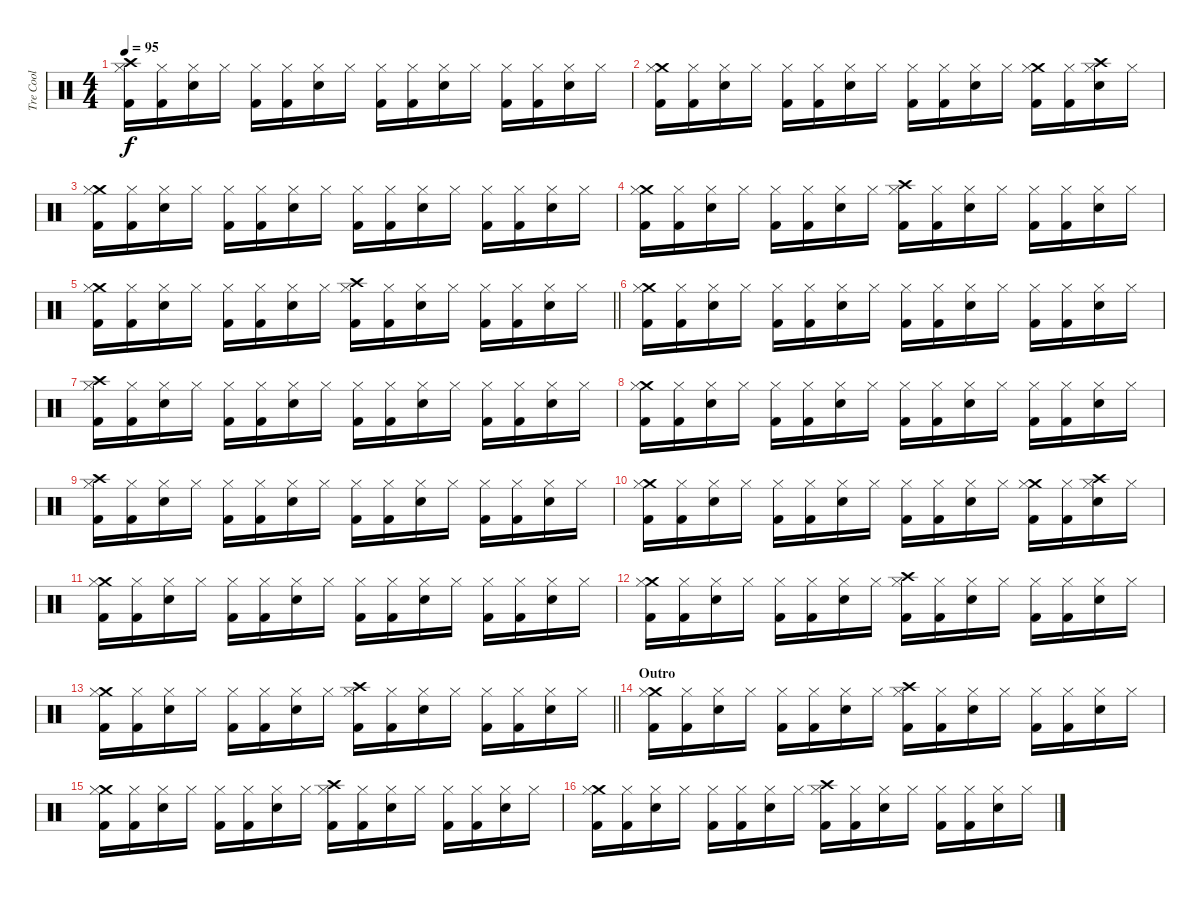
\track ("Tre Cool" "Tre Cool") {instrument percussion}
\staff {score}
\articulation defaults
\ts (4 4)
\tempo 95
\clef neutral
\ks c
("Crash high (hit)" "Hi-Hat (closed)" "Kick (hit) 2").16{dy f} ("Hi-Hat (closed)" "Kick (hit) 2").16 ("Hi-Hat (closed)" "Electric Snare (hit)").16 "Hi-Hat (closed)".16 ("Hi-Hat (closed)" "Kick (hit) 2").16 ("Hi-Hat (closed)" "Kick (hit) 2").16 ("Hi-Hat (closed)" "Electric Snare (hit)").16 "Hi-Hat (closed)".16 ("Hi-Hat (closed)" "Kick (hit) 2").16 ("Hi-Hat (closed)" "Kick (hit) 2").16 ("Hi-Hat (closed)" "Electric Snare (hit)").16 "Hi-Hat (closed)".16 ("Hi-Hat (closed)" "Kick (hit) 2").16 ("Hi-Hat (closed)" "Kick (hit) 2").16 ("Hi-Hat (closed)" "Electric Snare (hit)").16 "Hi-Hat (closed)".16 |
("Crash medium (hit)" "Hi-Hat (closed)" "Kick (hit) 2").16 ("Hi-Hat (closed)" "Kick (hit) 2").16 ("Hi-Hat (closed)" "Electric Snare (hit)").16 "Hi-Hat (closed)".16 ("Hi-Hat (closed)" "Kick (hit) 2").16 ("Hi-Hat (closed)" "Kick (hit) 2").16 ("Hi-Hat (closed)" "Electric Snare (hit)").16 "Hi-Hat (closed)".16 ("Hi-Hat (closed)" "Kick (hit) 2").16 ("Hi-Hat (closed)" "Kick (hit) 2").16 ("Hi-Hat (closed)" "Electric Snare (hit)").16 "Hi-Hat (closed)".16 ("Crash medium (hit)" "Hi-Hat (closed)" "Kick (hit) 2").16 ("Hi-Hat (closed)" "Kick (hit) 2").16 ("Crash high (hit)" "Hi-Hat (closed)" "Electric Snare (hit)").16 "Hi-Hat (closed)".16 |
("Crash medium (hit)" "Hi-Hat (closed)" "Kick (hit) 2").16 ("Hi-Hat (closed)" "Kick (hit) 2").16 ("Hi-Hat (closed)" "Electric Snare (hit)").16 "Hi-Hat (closed)".16 ("Hi-Hat (closed)" "Kick (hit) 2").16 ("Hi-Hat (closed)" "Kick (hit) 2").16 ("Hi-Hat (closed)" "Electric Snare (hit)").16 "Hi-Hat (closed)".16 ("Hi-Hat (closed)" "Kick (hit) 2").16 ("Hi-Hat (closed)" "Kick (hit) 2").16 ("Hi-Hat (closed)" "Electric Snare (hit)").16 "Hi-Hat (closed)".16 ("Hi-Hat (closed)" "Kick (hit) 2").16 ("Hi-Hat (closed)" "Kick (hit) 2").16 ("Hi-Hat (closed)" "Electric Snare (hit)").16 "Hi-Hat (closed)".16 |
("Crash medium (hit)" "Hi-Hat (closed)" "Kick (hit) 2").16 ("Hi-Hat (closed)" "Kick (hit) 2").16 ("Hi-Hat (closed)" "Electric Snare (hit)").16 "Hi-Hat (closed)".16 ("Hi-Hat (closed)" "Kick (hit) 2").16 ("Hi-Hat (closed)" "Kick (hit) 2").16 ("Hi-Hat (closed)" "Electric Snare (hit)").16 "Hi-Hat (closed)".16 ("Crash high (hit)" "Hi-Hat (closed)" "Kick (hit) 2").16 ("Hi-Hat (closed)" "Kick (hit) 2").16 ("Hi-Hat (closed)" "Electric Snare (hit)").16 "Hi-Hat (closed)".16 ("Hi-Hat (closed)" "Kick (hit) 2").16 ("Hi-Hat (closed)" "Kick (hit) 2").16 ("Hi-Hat (closed)" "Electric Snare (hit)").16 "Hi-Hat (closed)".16 |
\barLineRight lightlight
("Crash medium (hit)" "Hi-Hat (closed)" "Kick (hit) 2").16 ("Hi-Hat (closed)" "Kick (hit) 2").16 ("Hi-Hat (closed)" "Electric Snare (hit)").16 "Hi-Hat (closed)".16 ("Hi-Hat (closed)" "Kick (hit) 2").16 ("Hi-Hat (closed)" "Kick (hit) 2").16 ("Hi-Hat (closed)" "Electric Snare (hit)").16 "Hi-Hat (closed)".16 ("Crash high (hit)" "Hi-Hat (closed)" "Kick (hit) 2").16 ("Hi-Hat (closed)" "Kick (hit) 2").16 ("Hi-Hat (closed)" "Electric Snare (hit)").16 "Hi-Hat (closed)".16 ("Hi-Hat (closed)" "Kick (hit) 2").16 ("Hi-Hat (closed)" "Kick (hit) 2").16 ("Hi-Hat (closed)" "Electric Snare (hit)").16 "Hi-Hat (closed)".16 |
("Crash medium (hit)" "Hi-Hat (closed)" "Kick (hit) 2").16 ("Hi-Hat (closed)" "Kick (hit) 2").16 ("Hi-Hat (closed)" "Electric Snare (hit)").16 "Hi-Hat (closed)".16 ("Hi-Hat (closed)" "Kick (hit) 2").16 ("Hi-Hat (closed)" "Kick (hit) 2").16 ("Hi-Hat (closed)" "Electric Snare (hit)").16 "Hi-Hat (closed)".16 ("Hi-Hat (closed)" "Kick (hit) 2").16 ("Hi-Hat (closed)" "Kick (hit) 2").16 ("Hi-Hat (closed)" "Electric Snare (hit)").16 "Hi-Hat (closed)".16 ("Hi-Hat (closed)" "Kick (hit) 2").16 ("Hi-Hat (closed)" "Kick (hit) 2").16 ("Hi-Hat (closed)" "Electric Snare (hit)").16 "Hi-Hat (closed)".16 |
("Crash high (hit)" "Hi-Hat (closed)" "Kick (hit) 2").16 ("Hi-Hat (closed)" "Kick (hit) 2").16 ("Hi-Hat (closed)" "Electric Snare (hit)").16 "Hi-Hat (closed)".16 ("Hi-Hat (closed)" "Kick (hit) 2").16 ("Hi-Hat (closed)" "Kick (hit) 2").16 ("Hi-Hat (closed)" "Electric Snare (hit)").16 "Hi-Hat (closed)".16 ("Hi-Hat (closed)" "Kick (hit) 2").16 ("Hi-Hat (closed)" "Kick (hit) 2").16 ("Hi-Hat (closed)" "Electric Snare (hit)").16 "Hi-Hat (closed)".16 ("Hi-Hat (closed)" "Kick (hit) 2").16 ("Hi-Hat (closed)" "Kick (hit) 2").16 ("Hi-Hat (closed)" "Electric Snare (hit)").16 "Hi-Hat (closed)".16 |
("Crash medium (hit)" "Hi-Hat (closed)" "Kick (hit) 2").16 ("Hi-Hat (closed)" "Kick (hit) 2").16 ("Hi-Hat (closed)" "Electric Snare (hit)").16 "Hi-Hat (closed)".16 ("Hi-Hat (closed)" "Kick (hit) 2").16 ("Hi-Hat (closed)" "Kick (hit) 2").16 ("Hi-Hat (closed)" "Electric Snare (hit)").16 "Hi-Hat (closed)".16 ("Hi-Hat (closed)" "Kick (hit) 2").16 ("Hi-Hat (closed)" "Kick (hit) 2").16 ("Hi-Hat (closed)" "Electric Snare (hit)").16 "Hi-Hat (closed)".16 ("Hi-Hat (closed)" "Kick (hit) 2").16 ("Hi-Hat (closed)" "Kick (hit) 2").16 ("Hi-Hat (closed)" "Electric Snare (hit)").16 "Hi-Hat (closed)".16 |
("Crash high (hit)" "Hi-Hat (closed)" "Kick (hit) 2").16 ("Hi-Hat (closed)" "Kick (hit) 2").16 ("Hi-Hat (closed)" "Electric Snare (hit)").16 "Hi-Hat (closed)".16 ("Hi-Hat (closed)" "Kick (hit) 2").16 ("Hi-Hat (closed)" "Kick (hit) 2").16 ("Hi-Hat (closed)" "Electric Snare (hit)").16 "Hi-Hat (closed)".16 ("Hi-Hat (closed)" "Kick (hit) 2").16 ("Hi-Hat (closed)" "Kick (hit) 2").16 ("Hi-Hat (closed)" "Electric Snare (hit)").16 "Hi-Hat (closed)".16 ("Hi-Hat (closed)" "Kick (hit) 2").16 ("Hi-Hat (closed)" "Kick (hit) 2").16 ("Hi-Hat (closed)" "Electric Snare (hit)").16 "Hi-Hat (closed)".16 |
("Crash medium (hit)" "Hi-Hat (closed)" "Kick (hit) 2").16 ("Hi-Hat (closed)" "Kick (hit) 2").16 ("Hi-Hat (closed)" "Electric Snare (hit)").16 "Hi-Hat (closed)".16 ("Hi-Hat (closed)" "Kick (hit) 2").16 ("Hi-Hat (closed)" "Kick (hit) 2").16 ("Hi-Hat (closed)" "Electric Snare (hit)").16 "Hi-Hat (closed)".16 ("Hi-Hat (closed)" "Kick (hit) 2").16 ("Hi-Hat (closed)" "Kick (hit) 2").16 ("Hi-Hat (closed)" "Electric Snare (hit)").16 "Hi-Hat (closed)".16 ("Crash medium (hit)" "Hi-Hat (closed)" "Kick (hit) 2").16 ("Hi-Hat (closed)" "Kick (hit) 2").16 ("Crash high (hit)" "Hi-Hat (closed)" "Electric Snare (hit)").16 "Hi-Hat (closed)".16 |
("Crash medium (hit)" "Hi-Hat (closed)" "Kick (hit) 2").16 ("Hi-Hat (closed)" "Kick (hit) 2").16 ("Hi-Hat (closed)" "Electric Snare (hit)").16 "Hi-Hat (closed)".16 ("Hi-Hat (closed)" "Kick (hit) 2").16 ("Hi-Hat (closed)" "Kick (hit) 2").16 ("Hi-Hat (closed)" "Electric Snare (hit)").16 "Hi-Hat (closed)".16 ("Hi-Hat (closed)" "Kick (hit) 2").16 ("Hi-Hat (closed)" "Kick (hit) 2").16 ("Hi-Hat (closed)" "Electric Snare (hit)").16 "Hi-Hat (closed)".16 ("Hi-Hat (closed)" "Kick (hit) 2").16 ("Hi-Hat (closed)" "Kick (hit) 2").16 ("Hi-Hat (closed)" "Electric Snare (hit)").16 "Hi-Hat (closed)".16 |
("Crash medium (hit)" "Hi-Hat (closed)" "Kick (hit) 2").16 ("Hi-Hat (closed)" "Kick (hit) 2").16 ("Hi-Hat (closed)" "Electric Snare (hit)").16 "Hi-Hat (closed)".16 ("Hi-Hat (closed)" "Kick (hit) 2").16 ("Hi-Hat (closed)" "Kick (hit) 2").16 ("Hi-Hat (closed)" "Electric Snare (hit)").16 "Hi-Hat (closed)".16 ("Crash high (hit)" "Hi-Hat (closed)" "Kick (hit) 2").16 ("Hi-Hat (closed)" "Kick (hit) 2").16 ("Hi-Hat (closed)" "Electric Snare (hit)").16 "Hi-Hat (closed)".16 ("Hi-Hat (closed)" "Kick (hit) 2").16 ("Hi-Hat (closed)" "Kick (hit) 2").16 ("Hi-Hat (closed)" "Electric Snare (hit)").16 "Hi-Hat (closed)".16 |
\barLineRight lightlight
("Crash medium (hit)" "Hi-Hat (closed)" "Kick (hit) 2").16 ("Hi-Hat (closed)" "Kick (hit) 2").16 ("Hi-Hat (closed)" "Electric Snare (hit)").16 "Hi-Hat (closed)".16 ("Hi-Hat (closed)" "Kick (hit) 2").16 ("Hi-Hat (closed)" "Kick (hit) 2").16 ("Hi-Hat (closed)" "Electric Snare (hit)").16 "Hi-Hat (closed)".16 ("Crash high (hit)" "Hi-Hat (closed)" "Kick (hit) 2").16 ("Hi-Hat (closed)" "Kick (hit) 2").16 ("Hi-Hat (closed)" "Electric Snare (hit)").16 "Hi-Hat (closed)".16 ("Hi-Hat (closed)" "Kick (hit) 2").16 ("Hi-Hat (closed)" "Kick (hit) 2").16 ("Hi-Hat (closed)" "Electric Snare (hit)").16 "Hi-Hat (closed)".16 |
\section ("" "Outro")
("Crash medium (hit)" "Hi-Hat (closed)" "Kick (hit) 2").16 ("Hi-Hat (closed)" "Kick (hit) 2").16 ("Hi-Hat (closed)" "Electric Snare (hit)").16 "Hi-Hat (closed)".16 ("Hi-Hat (closed)" "Kick (hit) 2").16 ("Hi-Hat (closed)" "Kick (hit) 2").16 ("Hi-Hat (closed)" "Electric Snare (hit)").16 "Hi-Hat (closed)".16 ("Crash high (hit)" "Hi-Hat (closed)" "Kick (hit) 2").16 ("Hi-Hat (closed)" "Kick (hit) 2").16 ("Hi-Hat (closed)" "Electric Snare (hit)").16 "Hi-Hat (closed)".16 ("Hi-Hat (closed)" "Kick (hit) 2").16 ("Hi-Hat (closed)" "Kick (hit) 2").16 ("Hi-Hat (closed)" "Electric Snare (hit)").16 "Hi-Hat (closed)".16 |
("Crash medium (hit)" "Hi-Hat (closed)" "Kick (hit) 2").16 ("Hi-Hat (closed)" "Kick (hit) 2").16 ("Hi-Hat (closed)" "Electric Snare (hit)").16 "Hi-Hat (closed)".16 ("Hi-Hat (closed)" "Kick (hit) 2").16 ("Hi-Hat (closed)" "Kick (hit) 2").16 ("Hi-Hat (closed)" "Electric Snare (hit)").16 "Hi-Hat (closed)".16 ("Crash high (hit)" "Hi-Hat (closed)" "Kick (hit) 2").16 ("Hi-Hat (closed)" "Kick (hit) 2").16 ("Hi-Hat (closed)" "Electric Snare (hit)").16 "Hi-Hat (closed)".16 ("Hi-Hat (closed)" "Kick (hit) 2").16 ("Hi-Hat (closed)" "Kick (hit) 2").16 ("Hi-Hat (closed)" "Electric Snare (hit)").16 "Hi-Hat (closed)".16 |
("Crash medium (hit)" "Hi-Hat (closed)" "Kick (hit) 2").16 ("Hi-Hat (closed)" "Kick (hit) 2").16 ("Hi-Hat (closed)" "Electric Snare (hit)").16 "Hi-Hat (closed)".16 ("Hi-Hat (closed)" "Kick (hit) 2").16 ("Hi-Hat (closed)" "Kick (hit) 2").16 ("Hi-Hat (closed)" "Electric Snare (hit)").16 "Hi-Hat (closed)".16 ("Crash high (hit)" "Hi-Hat (closed)" "Kick (hit) 2").16 ("Hi-Hat (closed)" "Kick (hit) 2").16 ("Hi-Hat (closed)" "Electric Snare (hit)").16 "Hi-Hat (closed)".16 ("Hi-Hat (closed)" "Kick (hit) 2").16 ("Hi-Hat (closed)" "Kick (hit) 2").16 ("Hi-Hat (closed)" "Electric Snare (hit)").16 "Hi-Hat (closed)".16
